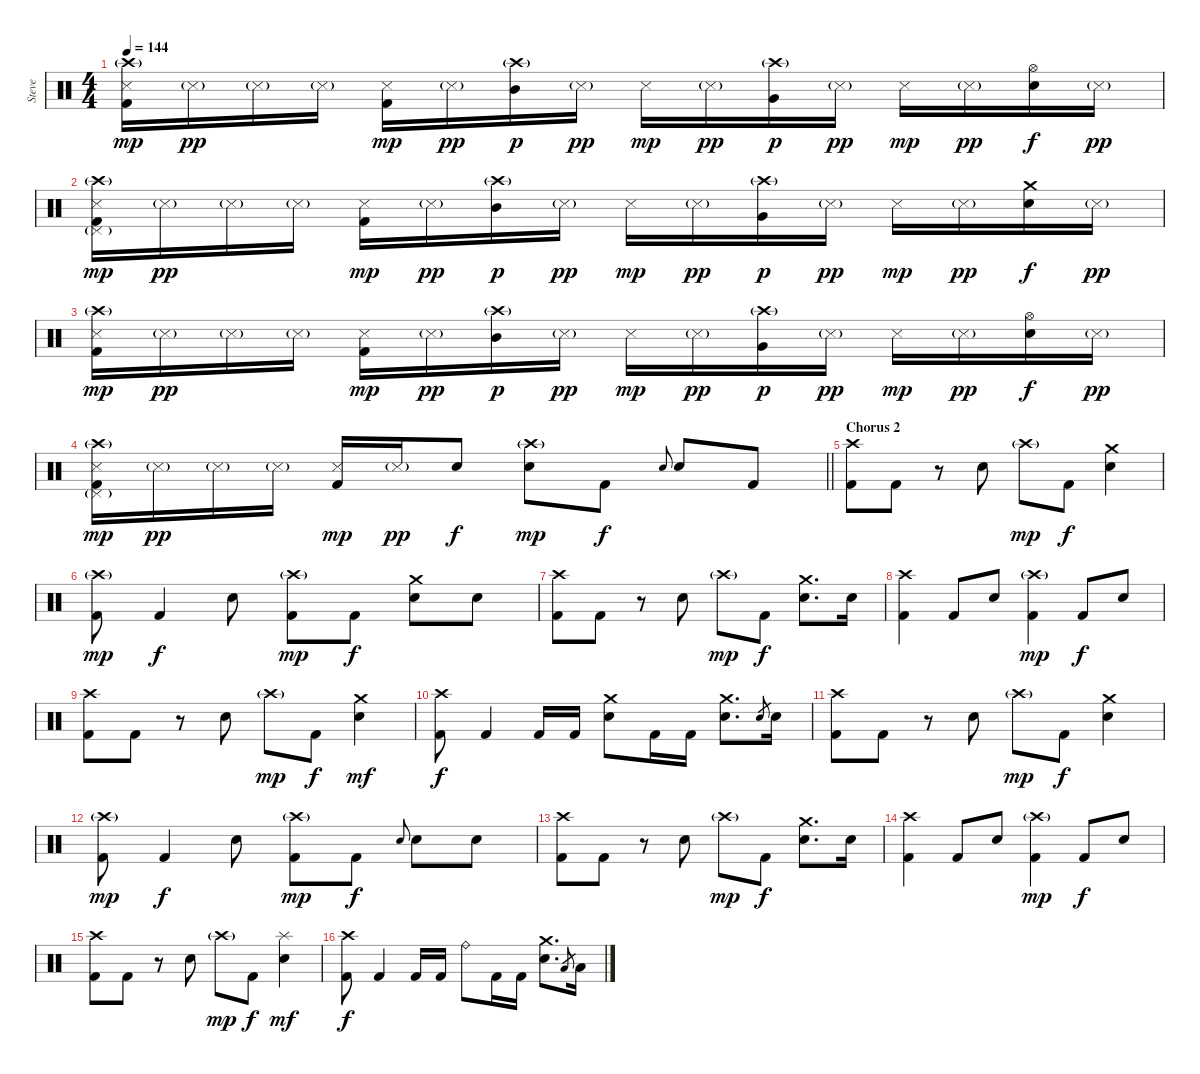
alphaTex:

\track ("Steve" "Steve") {instrument percussion}
\staff {score}
\articulation defaults
\ts (4 4)
\tempo 144
\clef neutral
\ks c
("Crash high (hit)"{g} "Snare (side stick) 3" "Kick (hit) 2").16{dy mp} "Snare (side stick) 3"{g}.16{dy pp} "Snare (side stick) 3"{g}.16 "Snare (side stick) 3"{g}.16 ("Snare (side stick) 3" "Kick (hit) 2").16{dy mp} "Snare (side stick) 3"{g}.16{dy pp} ("Crash high (hit)"{g} "Mid Tom (hit)").16{dy p} "Snare (side stick) 3"{g}.16{dy pp} "Snare (side stick) 3".16{dy mp} "Snare (side stick) 3"{g}.16{dy pp} ("Crash high (hit)"{g} "Very Low Tom (hit)").16{dy p} "Snare (side stick) 3"{g}.16{dy pp} "Snare (side stick) 3".16{dy mp} "Snare (side stick) 3"{g}.16{dy pp} ("Hi-Hat (open)" "Electric Snare (hit)").16{dy f} "Snare (side stick) 3"{g}.16{dy pp} |
("Crash high (hit)"{g} "Snare (side stick) 3" "Pedal Hi-Hat (hit)"{g} "Kick (hit) 2").16{dy mp} "Snare (side stick) 3"{g}.16{dy pp} "Snare (side stick) 3"{g}.16 "Snare (side stick) 3"{g}.16 ("Snare (side stick) 3" "Kick (hit) 2").16{dy mp} "Snare (side stick) 3"{g}.16{dy pp} ("Crash high (hit)"{g} "Mid Tom (hit)").16{dy p} "Snare (side stick) 3"{g}.16{dy pp} "Snare (side stick) 3".16{dy mp} "Snare (side stick) 3"{g}.16{dy pp} ("Crash high (hit)"{g} "Very Low Tom (hit)").16{dy p} "Snare (side stick) 3"{g}.16{dy pp} "Snare (side stick) 3".16{dy mp} "Snare (side stick) 3"{g}.16{dy pp} ("Crash medium (hit)" "Electric Snare (hit)").16{dy f} "Snare (side stick) 3"{g}.16{dy pp} |
("Crash high (hit)"{g} "Snare (side stick) 3" "Kick (hit) 2").16{dy mp} "Snare (side stick) 3"{g}.16{dy pp} "Snare (side stick) 3"{g}.16 "Snare (side stick) 3"{g}.16 ("Snare (side stick) 3" "Kick (hit) 2").16{dy mp} "Snare (side stick) 3"{g}.16{dy pp} ("Crash high (hit)"{g} "Mid Tom (hit)").16{dy p} "Snare (side stick) 3"{g}.16{dy pp} "Snare (side stick) 3".16{dy mp} "Snare (side stick) 3"{g}.16{dy pp} ("Crash high (hit)"{g} "Very Low Tom (hit)").16{dy p} "Snare (side stick) 3"{g}.16{dy pp} "Snare (side stick) 3".16{dy mp} "Snare (side stick) 3"{g}.16{dy pp} ("Hi-Hat (open)" "Electric Snare (hit)").16{dy f} "Snare (side stick) 3"{g}.16{dy pp} |
\barLineRight lightlight
("Crash high (hit)"{g} "Snare (side stick) 3" "Pedal Hi-Hat (hit)"{g} "Kick (hit) 2").16{dy mp} "Snare (side stick) 3"{g}.16{dy pp} "Snare (side stick) 3"{g}.16 "Snare (side stick) 3"{g}.16 ("Snare (side stick) 3" "Kick (hit) 2").16{dy mp} "Snare (side stick) 3"{g}.16{dy pp} "Electric Snare (hit)".8{dy f} ("Crash high (hit)"{g} "Electric Snare (hit)").8{dy mp} "Kick (hit) 2".8{dy f} "Electric Snare (hit)".8{gr onbeat} "Electric Snare (hit)".8 "Kick (hit) 2".8 |
\section ("" "Chorus 2")
("Crash high (hit)" "Kick (hit) 2").8 "Kick (hit) 2".8 r.8 "Electric Snare (hit)".8 "Crash high (hit)"{g}.8{dy mp} "Kick (hit) 2".8{dy f} ("Crash medium (hit)" "Electric Snare (hit)").4 |
("Crash high (hit)"{g} "Kick (hit) 2").8{dy mp} "Kick (hit) 2".4{dy f} "Electric Snare (hit)".8 ("Crash high (hit)"{g} "Kick (hit) 2").8{dy mp} "Kick (hit) 2".8{dy f} ("Crash medium (hit)" "Electric Snare (hit)").8 "Electric Snare (hit)".8 |
("Crash high (hit)" "Kick (hit) 2").8 "Kick (hit) 2".8 r.8 "Electric Snare (hit)".8 "Crash high (hit)"{g}.8{dy mp} "Kick (hit) 2".8{dy f} ("Crash medium (hit)" "Electric Snare (hit)").8{d} "Electric Snare (hit)".16 |
("Crash high (hit)" "Kick (hit) 2").4 "Kick (hit) 2".8 "Electric Snare (hit)".8 ("Crash high (hit)"{g} "Kick (hit) 2").4{dy mp} "Kick (hit) 2".8{dy f} "Electric Snare (hit)".8 |
("Crash high (hit)" "Kick (hit) 2").8 "Kick (hit) 2".8 r.8 "Electric Snare (hit)".8 "Crash high (hit)"{g}.8{dy mp} "Kick (hit) 2".8{dy f} ("Crash medium (hit)" "Electric Snare (hit)").4{dy mf} |
("Crash high (hit)" "Kick (hit) 2").8{dy f} "Kick (hit) 2".4 "Kick (hit) 2".16 "Kick (hit) 2".16 ("Crash medium (hit)" "Electric Snare (hit)").8 "Kick (hit) 2".16 "Kick (hit) 2".16 ("Crash medium (hit)" "Electric Snare (hit)").8{d} "Electric Snare (hit)".8{gr} "Electric Snare (hit)".16 |
("Crash high (hit)" "Kick (hit) 2").8 "Kick (hit) 2".8 r.8 "Electric Snare (hit)".8 "Crash high (hit)"{g}.8{dy mp} "Kick (hit) 2".8{dy f} ("Crash medium (hit)" "Electric Snare (hit)").4 |
("Crash high (hit)"{g} "Kick (hit) 2").8{dy mp} "Kick (hit) 2".4{dy f} "Electric Snare (hit)".8 ("Crash high (hit)"{g} "Kick (hit) 2").8{dy mp} "Kick (hit) 2".8{dy f} "Electric Snare (hit)".8{gr onbeat} "Electric Snare (hit)".8 "Electric Snare (hit)".8 |
("Crash high (hit)" "Kick (hit) 2").8 "Kick (hit) 2".8 r.8 "Electric Snare (hit)".8 "Crash high (hit)"{g}.8{dy mp} "Kick (hit) 2".8{dy f} ("Crash medium (hit)" "Electric Snare (hit)").8{d} "Electric Snare (hit)".16 |
("Crash high (hit)" "Kick (hit) 2").4 "Kick (hit) 2".8 "Electric Snare (hit)".8 ("Crash high (hit)"{g} "Kick (hit) 2").4{dy mp} "Kick (hit) 2".8{dy f} "Electric Snare (hit)".8 |
("Crash high (hit)" "Kick (hit) 2").8 "Kick (hit) 2".8 r.8 "Electric Snare (hit)".8 "Crash high (hit)"{g}.8{dy mp} "Kick (hit) 2".8{dy f} ("Splash (hit)" "Electric Snare (hit)").4{dy mf} |
("Crash high (hit)" "Kick (hit) 2").8{dy f} "Kick (hit) 2".4 "Kick (hit) 2".16 "Kick (hit) 2".16 "Ride (bell)".8 "Kick (hit) 2".16 "Kick (hit) 2".16 ("Crash medium (hit)" "Electric Snare (hit)").8{d} "Low Tom (hit)".8{gr} "Low Tom (hit)".16
